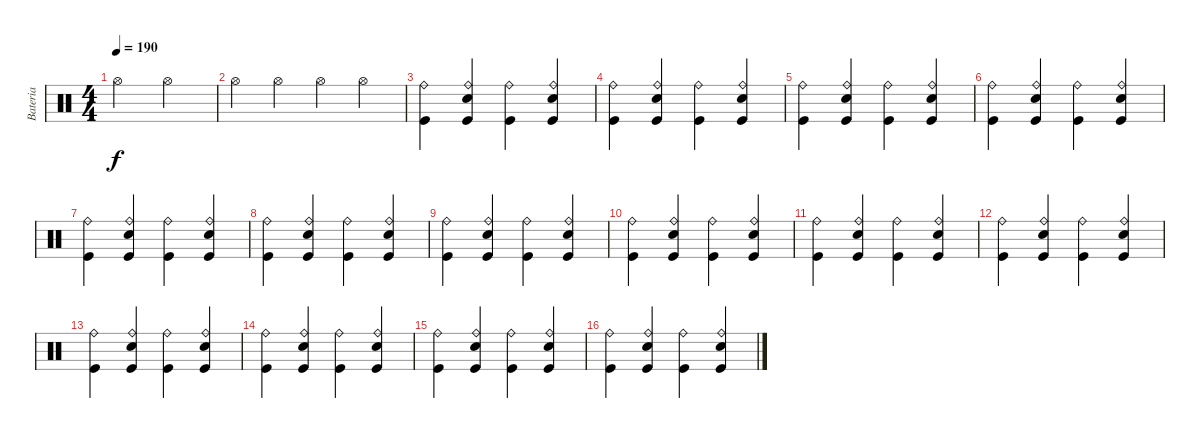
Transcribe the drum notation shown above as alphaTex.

\track ("Bateria" "Bateria") {instrument percussion}
\staff {score}
\articulation defaults
\ts (4 4)
\tempo 190
\clef neutral
\ks c "Hi-Hat (open)".2{dy f} "Hi-Hat (open)".2
|
"Hi-Hat (open)".4 "Hi-Hat (open)".4 "Hi-Hat (open)".4 "Hi-Hat (open)".4 |
("Kick (hit)" "Ride (bell)").4 ("Kick (hit)" "Snare (hit) 2" "Ride (bell)").4 ("Kick (hit)" "Ride (bell)").4 ("Kick (hit)" "Snare (hit) 2" "Ride (bell)").4 |
("Kick (hit)" "Ride (bell)").4 ("Kick (hit)" "Snare (hit) 2" "Ride (bell)").4 ("Kick (hit)" "Ride (bell)").4 ("Kick (hit)" "Snare (hit) 2" "Ride (bell)").4 |
("Kick (hit)" "Ride (bell)").4 ("Kick (hit)" "Snare (hit) 2" "Ride (bell)").4 ("Kick (hit)" "Ride (bell)").4 ("Kick (hit)" "Snare (hit) 2" "Ride (bell)").4 |
("Kick (hit)" "Ride (bell)").4 ("Kick (hit)" "Snare (hit) 2" "Ride (bell)").4 ("Kick (hit)" "Ride (bell)").4 ("Kick (hit)" "Snare (hit) 2" "Ride (bell)").4 |
("Kick (hit)" "Ride (bell)").4 ("Kick (hit)" "Snare (hit) 2" "Ride (bell)").4 ("Kick (hit)" "Ride (bell)").4 ("Kick (hit)" "Snare (hit) 2" "Ride (bell)").4 |
("Kick (hit)" "Ride (bell)").4 ("Kick (hit)" "Snare (hit) 2" "Ride (bell)").4 ("Kick (hit)" "Ride (bell)").4 ("Kick (hit)" "Snare (hit) 2" "Ride (bell)").4 |
("Kick (hit)" "Ride (bell)").4 ("Kick (hit)" "Snare (hit) 2" "Ride (bell)").4 ("Kick (hit)" "Ride (bell)").4 ("Kick (hit)" "Snare (hit) 2" "Ride (bell)").4 |
("Kick (hit)" "Ride (bell)").4 ("Kick (hit)" "Snare (hit) 2" "Ride (bell)").4 ("Kick (hit)" "Ride (bell)").4 ("Kick (hit)" "Snare (hit) 2" "Ride (bell)").4 |
("Kick (hit)" "Ride (bell)").4 ("Kick (hit)" "Snare (hit) 2" "Ride (bell)").4 ("Kick (hit)" "Ride (bell)").4 ("Kick (hit)" "Snare (hit) 2" "Ride (bell)").4 |
("Kick (hit)" "Ride (bell)").4 ("Kick (hit)" "Snare (hit) 2" "Ride (bell)").4 ("Kick (hit)" "Ride (bell)").4 ("Kick (hit)" "Snare (hit) 2" "Ride (bell)").4 |
("Kick (hit)" "Ride (bell)").4 ("Kick (hit)" "Snare (hit) 2" "Ride (bell)").4 ("Kick (hit)" "Ride (bell)").4 ("Kick (hit)" "Snare (hit) 2" "Ride (bell)").4 |
("Kick (hit)" "Ride (bell)").4 ("Kick (hit)" "Snare (hit) 2" "Ride (bell)").4 ("Kick (hit)" "Ride (bell)").4 ("Kick (hit)" "Snare (hit) 2" "Ride (bell)").4 |
("Kick (hit)" "Ride (bell)").4 ("Kick (hit)" "Snare (hit) 2" "Ride (bell)").4 ("Kick (hit)" "Ride (bell)").4 ("Kick (hit)" "Snare (hit) 2" "Ride (bell)").4 |
("Kick (hit)" "Ride (bell)").4 ("Kick (hit)" "Snare (hit) 2" "Ride (bell)").4 ("Kick (hit)" "Ride (bell)").4 ("Kick (hit)" "Snare (hit) 2" "Ride (bell)").4
